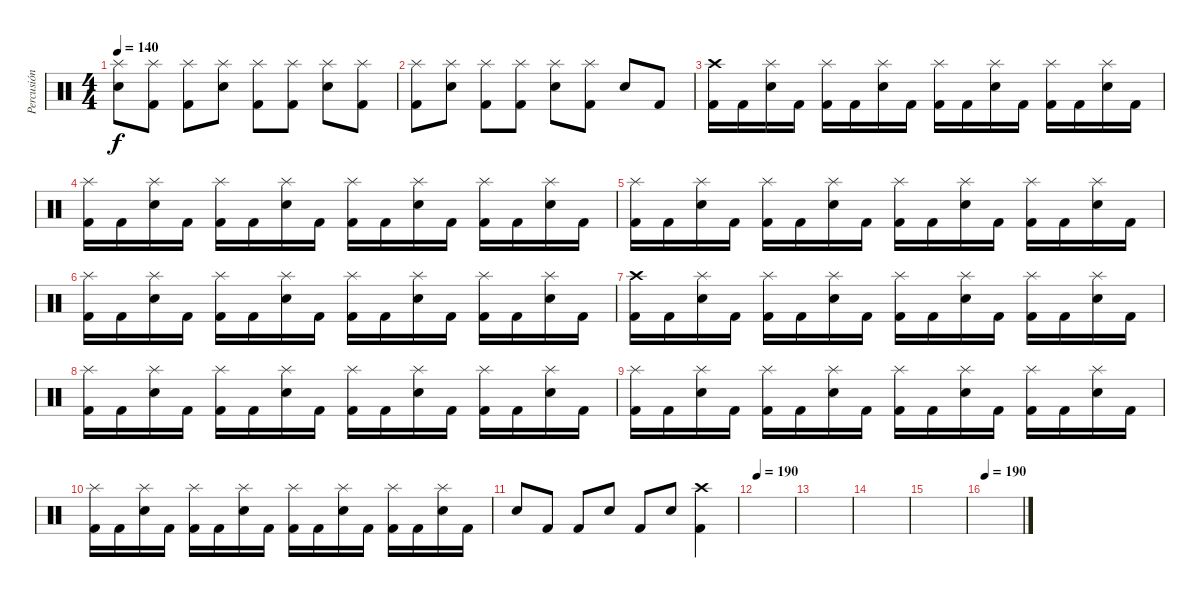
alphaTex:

\track ("Percusión" "Percusión") {instrument percussion}
\staff {score}
\articulation defaults
\ts (4 4)
\tempo 140
\clef neutral
\ks c
("Splash (hit)" "Electric Snare (hit)").8{dy f} ("Splash (hit)" "Kick (hit) 2").8 ("Splash (hit)" "Kick (hit) 2").8 ("Splash (hit)" "Electric Snare (hit)").8 ("Splash (hit)" "Kick (hit) 2").8 ("Splash (hit)" "Kick (hit) 2").8 ("Splash (hit)" "Electric Snare (hit)").8 ("Splash (hit)" "Kick (hit) 2").8 |
("Splash (hit)" "Kick (hit) 2").8 ("Splash (hit)" "Electric Snare (hit)").8 ("Splash (hit)" "Kick (hit) 2").8 ("Splash (hit)" "Kick (hit) 2").8 ("Splash (hit)" "Electric Snare (hit)").8 ("Splash (hit)" "Kick (hit) 2").8 "Electric Snare (hit)".8 "Kick (hit) 2".8 |
("Crash high (hit)" "Kick (hit) 2").16 "Kick (hit) 2".16 ("Splash (hit)" "Electric Snare (hit)").16 "Kick (hit) 2".16 ("Splash (hit)" "Kick (hit) 2").16 "Kick (hit) 2".16 ("Splash (hit)" "Electric Snare (hit)").16 "Kick (hit) 2".16 ("Splash (hit)" "Kick (hit) 2").16 "Kick (hit) 2".16 ("Splash (hit)" "Electric Snare (hit)").16 "Kick (hit) 2".16 ("Splash (hit)" "Kick (hit) 2").16 "Kick (hit) 2".16 ("Splash (hit)" "Electric Snare (hit)").16 "Kick (hit) 2".16 |
("Splash (hit)" "Kick (hit) 2").16 "Kick (hit) 2".16 ("Splash (hit)" "Electric Snare (hit)").16 "Kick (hit) 2".16 ("Splash (hit)" "Kick (hit) 2").16 "Kick (hit) 2".16 ("Splash (hit)" "Electric Snare (hit)").16 "Kick (hit) 2".16 ("Splash (hit)" "Kick (hit) 2").16 "Kick (hit) 2".16 ("Splash (hit)" "Electric Snare (hit)").16 "Kick (hit) 2".16 ("Splash (hit)" "Kick (hit) 2").16 "Kick (hit) 2".16 ("Splash (hit)" "Electric Snare (hit)").16 "Kick (hit) 2".16 |
("Splash (hit)" "Kick (hit) 2").16 "Kick (hit) 2".16 ("Splash (hit)" "Electric Snare (hit)").16 "Kick (hit) 2".16 ("Splash (hit)" "Kick (hit) 2").16 "Kick (hit) 2".16 ("Splash (hit)" "Electric Snare (hit)").16 "Kick (hit) 2".16 ("Splash (hit)" "Kick (hit) 2").16 "Kick (hit) 2".16 ("Splash (hit)" "Electric Snare (hit)").16 "Kick (hit) 2".16 ("Splash (hit)" "Kick (hit) 2").16 "Kick (hit) 2".16 ("Splash (hit)" "Electric Snare (hit)").16 "Kick (hit) 2".16 |
("Splash (hit)" "Kick (hit) 2").16 "Kick (hit) 2".16 ("Splash (hit)" "Electric Snare (hit)").16 "Kick (hit) 2".16 ("Splash (hit)" "Kick (hit) 2").16 "Kick (hit) 2".16 ("Splash (hit)" "Electric Snare (hit)").16 "Kick (hit) 2".16 ("Splash (hit)" "Kick (hit) 2").16 "Kick (hit) 2".16 ("Splash (hit)" "Electric Snare (hit)").16 "Kick (hit) 2".16 ("Splash (hit)" "Kick (hit) 2").16 "Kick (hit) 2".16 ("Splash (hit)" "Electric Snare (hit)").16 "Kick (hit) 2".16 |
("Crash high (hit)" "Kick (hit) 2").16 "Kick (hit) 2".16 ("Splash (hit)" "Electric Snare (hit)").16 "Kick (hit) 2".16 ("Splash (hit)" "Kick (hit) 2").16 "Kick (hit) 2".16 ("Splash (hit)" "Electric Snare (hit)").16 "Kick (hit) 2".16 ("Splash (hit)" "Kick (hit) 2").16 "Kick (hit) 2".16 ("Splash (hit)" "Electric Snare (hit)").16 "Kick (hit) 2".16 ("Splash (hit)" "Kick (hit) 2").16 "Kick (hit) 2".16 ("Splash (hit)" "Electric Snare (hit)").16 "Kick (hit) 2".16 |
("Splash (hit)" "Kick (hit) 2").16 "Kick (hit) 2".16 ("Splash (hit)" "Electric Snare (hit)").16 "Kick (hit) 2".16 ("Splash (hit)" "Kick (hit) 2").16 "Kick (hit) 2".16 ("Splash (hit)" "Electric Snare (hit)").16 "Kick (hit) 2".16 ("Splash (hit)" "Kick (hit) 2").16 "Kick (hit) 2".16 ("Splash (hit)" "Electric Snare (hit)").16 "Kick (hit) 2".16 ("Splash (hit)" "Kick (hit) 2").16 "Kick (hit) 2".16 ("Splash (hit)" "Electric Snare (hit)").16 "Kick (hit) 2".16 |
("Splash (hit)" "Kick (hit) 2").16 "Kick (hit) 2".16 ("Splash (hit)" "Electric Snare (hit)").16 "Kick (hit) 2".16 ("Splash (hit)" "Kick (hit) 2").16 "Kick (hit) 2".16 ("Splash (hit)" "Electric Snare (hit)").16 "Kick (hit) 2".16 ("Splash (hit)" "Kick (hit) 2").16 "Kick (hit) 2".16 ("Splash (hit)" "Electric Snare (hit)").16 "Kick (hit) 2".16 ("Splash (hit)" "Kick (hit) 2").16 "Kick (hit) 2".16 ("Splash (hit)" "Electric Snare (hit)").16 "Kick (hit) 2".16 |
("Splash (hit)" "Kick (hit) 2").16 "Kick (hit) 2".16 ("Splash (hit)" "Electric Snare (hit)").16 "Kick (hit) 2".16 ("Splash (hit)" "Kick (hit) 2").16 "Kick (hit) 2".16 ("Splash (hit)" "Electric Snare (hit)").16 "Kick (hit) 2".16 ("Splash (hit)" "Kick (hit) 2").16 "Kick (hit) 2".16 ("Splash (hit)" "Electric Snare (hit)").16 "Kick (hit) 2".16 ("Splash (hit)" "Kick (hit) 2").16 "Kick (hit) 2".16 ("Splash (hit)" "Electric Snare (hit)").16 "Kick (hit) 2".16 |
"Electric Snare (hit)".8 "Kick (hit) 2".8 "Kick (hit) 2".8 "Electric Snare (hit)".8 "Kick (hit) 2".8 "Electric Snare (hit)".8 ("Crash high (hit)" "Kick (hit) 2").4 |
\tempo 190
|
|
|
|
\tempo 190
